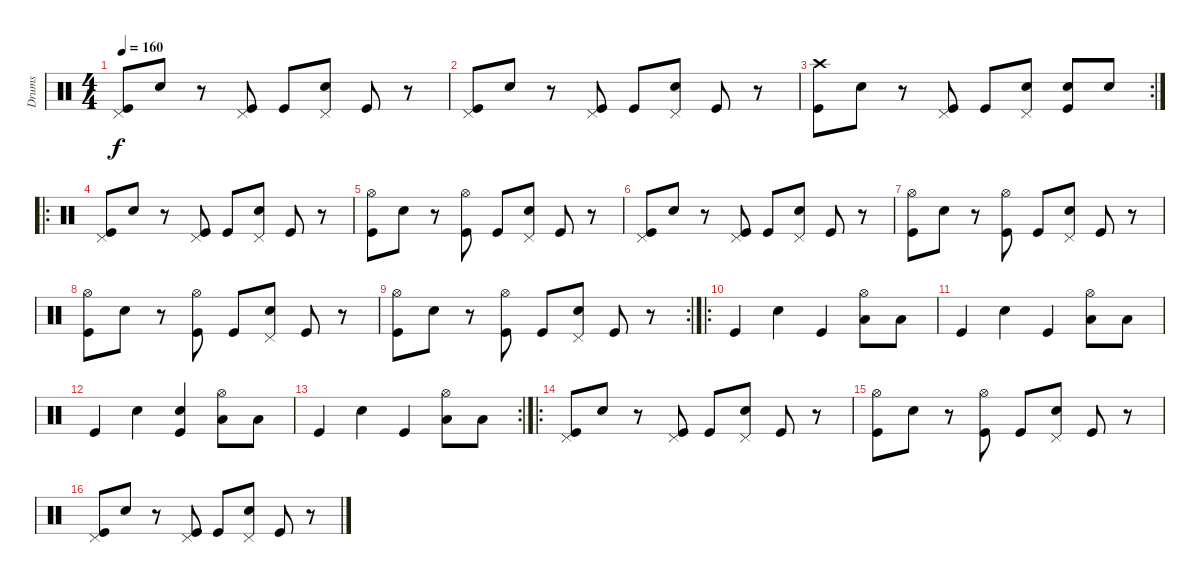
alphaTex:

\track ("Drums" "Drums") {instrument percussion}
\staff {score}
\articulation defaults
\ts (4 4)
\tempo 160
\clef neutral
\ks c
("Pedal Hi-Hat (hit)" "Kick (hit)").8{dy f} "Snare (hit) 2".8 r.8 ("Pedal Hi-Hat (hit)" "Kick (hit)").8 "Kick (hit)".8 ("Pedal Hi-Hat (hit)" "Snare (hit) 2").8 "Kick (hit)".8 r.8 |
("Pedal Hi-Hat (hit)" "Kick (hit)").8 "Snare (hit) 2".8 r.8 ("Pedal Hi-Hat (hit)" "Kick (hit)").8 "Kick (hit)".8 ("Pedal Hi-Hat (hit)" "Snare (hit) 2").8 "Kick (hit)".8 r.8 |
\rc 2
("Crash high (hit)" "Kick (hit)").8 "Snare (hit) 2".8 r.8 ("Pedal Hi-Hat (hit)" "Kick (hit)").8 "Kick (hit)".8 ("Pedal Hi-Hat (hit)" "Snare (hit) 2").8 ("Snare (hit) 2" "Kick (hit)").8 "Snare (hit) 2".8 |
\ro
("Pedal Hi-Hat (hit)" "Kick (hit)").8 "Snare (hit) 2".8 r.8 ("Pedal Hi-Hat (hit)" "Kick (hit)").8 "Kick (hit)".8 ("Pedal Hi-Hat (hit)" "Snare (hit) 2").8 "Kick (hit)".8 r.8 |
("Hi-Hat (open)" "Kick (hit)").8 "Snare (hit) 2".8 r.8 ("Hi-Hat (open)" "Kick (hit)").8 "Kick (hit)".8 ("Pedal Hi-Hat (hit)" "Snare (hit) 2").8 "Kick (hit)".8 r.8 |
("Pedal Hi-Hat (hit)" "Kick (hit)").8 "Snare (hit) 2".8 r.8 ("Pedal Hi-Hat (hit)" "Kick (hit)").8 "Kick (hit)".8 ("Pedal Hi-Hat (hit)" "Snare (hit) 2").8 "Kick (hit)".8 r.8 |
("Hi-Hat (open)" "Kick (hit)").8 "Snare (hit) 2".8 r.8 ("Hi-Hat (open)" "Kick (hit)").8 "Kick (hit)".8 ("Pedal Hi-Hat (hit)" "Snare (hit) 2").8 "Kick (hit)".8 r.8 |
("Hi-Hat (open)" "Kick (hit)").8 "Snare (hit) 2".8 r.8 ("Hi-Hat (open)" "Kick (hit)").8 "Kick (hit)".8 ("Pedal Hi-Hat (hit)" "Snare (hit) 2").8 "Kick (hit)".8 r.8 |
\rc 2
("Hi-Hat (open)" "Kick (hit)").8 "Snare (hit) 2".8 r.8 ("Hi-Hat (open)" "Kick (hit)").8 "Kick (hit)".8 ("Pedal Hi-Hat (hit)" "Snare (hit) 2").8 "Kick (hit)".8 r.8 |
\ro "Kick (hit)".4 "Snare (hit) 2".4 "Kick (hit)".4
("Hi-Hat (open)" "Low Floor Tom (hit)").8 "Low Floor Tom (hit)".8 |
"Kick (hit)".4 "Snare (hit) 2".4 "Kick (hit)".4 ("Hi-Hat (open)" "Low Floor Tom (hit)").8 "Low Floor Tom (hit)".8 |
"Kick (hit)".4 "Snare (hit) 2".4 ("Snare (hit) 2" "Kick (hit)").4 ("Hi-Hat (open)" "Low Floor Tom (hit)").8 "Low Floor Tom (hit)".8 |
\rc 2 "Kick (hit)".4 "Snare (hit) 2".4 "Kick (hit)".4
("Hi-Hat (open)" "Low Floor Tom (hit)").8 "Low Floor Tom (hit)".8 |
\ro
("Pedal Hi-Hat (hit)" "Kick (hit)").8 "Snare (hit) 2".8 r.8 ("Pedal Hi-Hat (hit)" "Kick (hit)").8 "Kick (hit)".8 ("Pedal Hi-Hat (hit)" "Snare (hit) 2").8 "Kick (hit)".8 r.8 |
("Hi-Hat (open)" "Kick (hit)").8 "Snare (hit) 2".8 r.8 ("Hi-Hat (open)" "Kick (hit)").8 "Kick (hit)".8 ("Pedal Hi-Hat (hit)" "Snare (hit) 2").8 "Kick (hit)".8 r.8 |
("Pedal Hi-Hat (hit)" "Kick (hit)").8 "Snare (hit) 2".8 r.8 ("Pedal Hi-Hat (hit)" "Kick (hit)").8 "Kick (hit)".8 ("Pedal Hi-Hat (hit)" "Snare (hit) 2").8 "Kick (hit)".8 r.8
